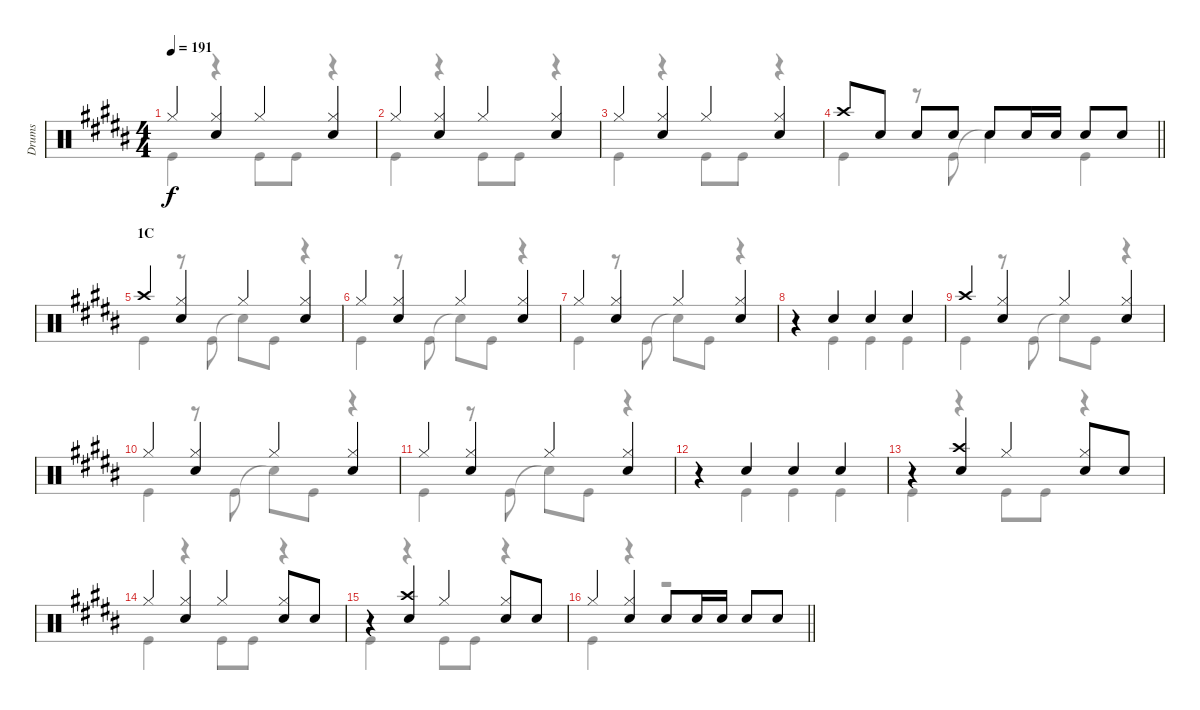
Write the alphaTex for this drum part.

\track ("Drums" "Drums") {instrument percussion}
\staff {score}
\articulation defaults
\voice
\ts (4 4)
\tempo 191
\clef neutral
\ks b "Hi-Hat (closed)".4{dy f}
("Hi-Hat (closed)" "Snare (hit) 2").4 "Hi-Hat (closed)".4 ("Hi-Hat (closed)" "Snare (hit) 2").4 |
"Hi-Hat (closed)".4 ("Hi-Hat (closed)" "Snare (hit) 2").4 "Hi-Hat (closed)".4 ("Hi-Hat (closed)" "Snare (hit) 2").4 |
"Hi-Hat (closed)".4 ("Hi-Hat (closed)" "Snare (hit) 2").4 "Hi-Hat (closed)".4 ("Hi-Hat (closed)" "Snare (hit) 2").4 |
\barLineRight lightlight "Crash high (hit)".8 "Snare (hit) 2".8 "Snare (hit) 2".8 "Snare (hit) 2".8 "Snare (hit) 2".8 "Snare (hit) 2".16 "Snare (hit) 2".16 "Snare (hit) 2".8 "Snare (hit) 2".8
|
\section ("" "1C")
"Crash high (hit)".4 ("Hi-Hat (closed)" "Snare (hit) 2").4 "Hi-Hat (closed)".4 ("Hi-Hat (closed)" "Snare (hit) 2").4 |
"Hi-Hat (closed)".4 ("Hi-Hat (closed)" "Snare (hit) 2").4 "Hi-Hat (closed)".4 ("Hi-Hat (closed)" "Snare (hit) 2").4 |
"Hi-Hat (closed)".4 ("Hi-Hat (closed)" "Snare (hit) 2").4 "Hi-Hat (closed)".4 ("Hi-Hat (closed)" "Snare (hit) 2").4 |
r.4 "Snare (hit) 2".4 "Snare (hit) 2".4 "Snare (hit) 2".4 |
"Crash high (hit)".4 ("Hi-Hat (closed)" "Snare (hit) 2").4 "Hi-Hat (closed)".4 ("Hi-Hat (closed)" "Snare (hit) 2").4 |
"Hi-Hat (closed)".4 ("Hi-Hat (closed)" "Snare (hit) 2").4 "Hi-Hat (closed)".4 ("Hi-Hat (closed)" "Snare (hit) 2").4 |
"Hi-Hat (closed)".4 ("Hi-Hat (closed)" "Snare (hit) 2").4 "Hi-Hat (closed)".4 ("Hi-Hat (closed)" "Snare (hit) 2").4 |
r.4 "Snare (hit) 2".4 "Snare (hit) 2".4 "Snare (hit) 2".4 |
r.4 ("Crash high (hit)" "Snare (hit) 2").4 "Hi-Hat (closed)".4 ("Hi-Hat (closed)" "Snare (hit) 2").8 "Snare (hit) 2".8 |
"Hi-Hat (closed)".4 ("Hi-Hat (closed)" "Snare (hit) 2").4 "Hi-Hat (closed)".4 ("Hi-Hat (closed)" "Snare (hit) 2").8 "Snare (hit) 2".8 |
r.4 ("Crash high (hit)" "Snare (hit) 2").4 "Hi-Hat (closed)".4 ("Hi-Hat (closed)" "Snare (hit) 2").8 "Snare (hit) 2".8 |
\barLineRight lightlight "Hi-Hat (closed)".4
("Hi-Hat (closed)" "Snare (hit) 2").4 "Snare (hit) 2".8 "Snare (hit) 2".16 "Snare (hit) 2".16 "Snare (hit) 2".8 "Snare (hit) 2".8
\voice
\clef neutral
\ottava regular
\simile none
\ks b "Kick (hit)".4{dy f}
r.4 "Kick (hit)".8 "Kick (hit)".8 r.4 |
"Kick (hit)".4 r.4 "Kick (hit)".8 "Kick (hit)".8 r.4 |
"Kick (hit)".4 r.4 "Kick (hit)".8 "Kick (hit)".8 r.4 |
\barLineRight lightlight "Kick (hit)".4
r.8 "Kick (hit)".8 "Snare (hit)"{t}.4 "Kick (hit)".4 |
"Kick (hit)".4 r.8 "Kick (hit)".8 "Snare (hit)"{t}.8 "Kick (hit)".8 r.4 |
"Kick (hit)".4 r.8 "Kick (hit)".8 "Snare (hit)"{t}.8 "Kick (hit)".8 r.4 |
"Kick (hit)".4 r.8 "Kick (hit)".8 "Snare (hit)"{t}.8 "Kick (hit)".8 r.4 |
r.4 "Kick (hit)".4 "Kick (hit)".4 "Kick (hit)".4 |
"Kick (hit)".4 r.8 "Kick (hit)".8 "Snare (hit)"{t}.8 "Kick (hit)".8 r.4 |
"Kick (hit)".4 r.8 "Kick (hit)".8 "Snare (hit)"{t}.8 "Kick (hit)".8 r.4 |
"Kick (hit)".4 r.8 "Kick (hit)".8 "Snare (hit)"{t}.8 "Kick (hit)".8 r.4 |
r.4 "Kick (hit)".4 "Kick (hit)".4 "Kick (hit)".4 |
"Kick (hit)".4 r.4 "Kick (hit)".8 "Kick (hit)".8 r.4 |
"Kick (hit)".4 r.4 "Kick (hit)".8 "Kick (hit)".8 r.4 |
"Kick (hit)".4 r.4 "Kick (hit)".8 "Kick (hit)".8 r.4 |
\barLineRight lightlight "Kick (hit)".4
r.4 r.2
